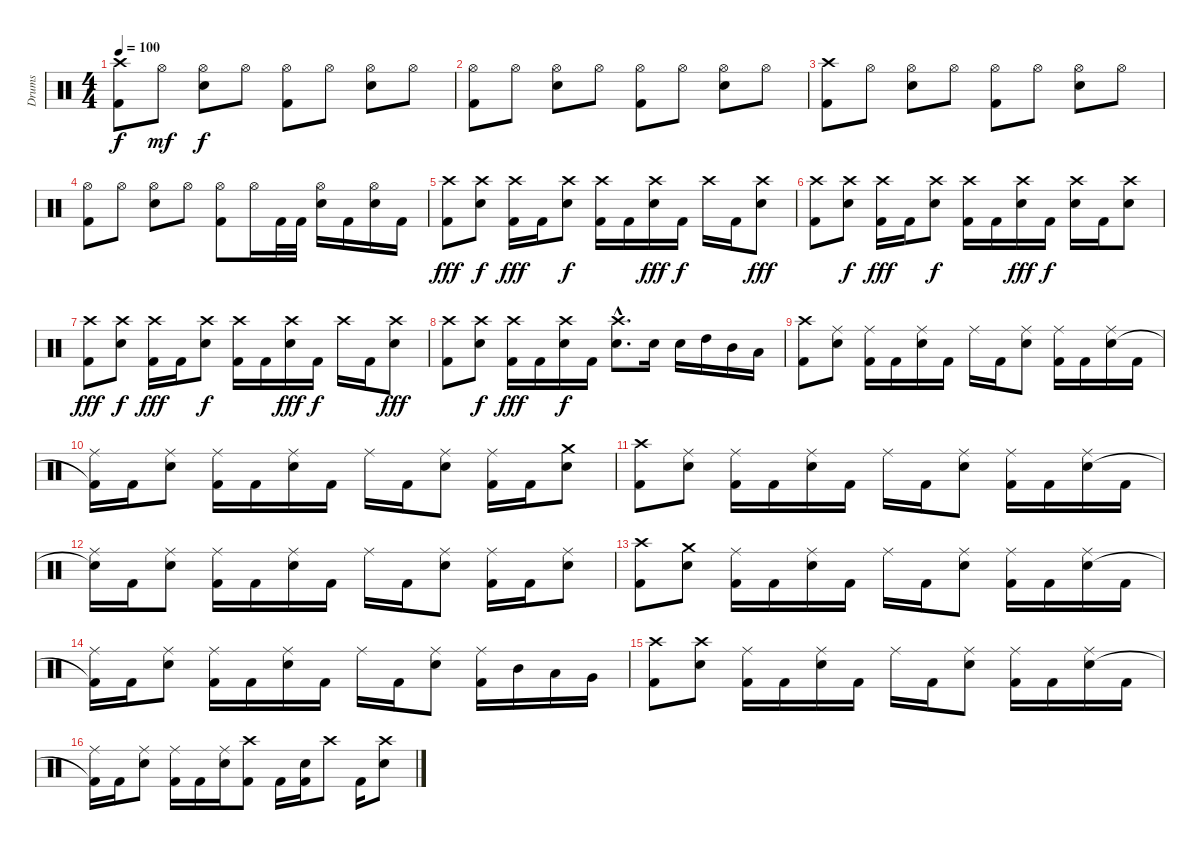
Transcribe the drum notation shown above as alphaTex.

\track ("Drums" "Drums") {instrument percussion}
\staff {score}
\articulation defaults
\ts (4 4)
\tempo 100
\clef neutral
\ks c
("Crash high (hit)" "Kick (hit) 2").8{dy f} "Hi-Hat (open)".8{dy mf} ("Hi-Hat (open)" "Snare (hit) 2").8{dy f} "Hi-Hat (open)".8 ("Hi-Hat (open)" "Kick (hit) 2").8 "Hi-Hat (open)".8 ("Hi-Hat (open)" "Snare (hit) 2").8 "Hi-Hat (open)".8 |
("Hi-Hat (open)" "Kick (hit) 2").8 "Hi-Hat (open)".8 ("Hi-Hat (open)" "Snare (hit) 2").8 "Hi-Hat (open)".8 ("Hi-Hat (open)" "Kick (hit) 2").8 "Hi-Hat (open)".8 ("Hi-Hat (open)" "Snare (hit) 2").8 "Hi-Hat (open)".8 |
("Crash high (hit)" "Kick (hit) 2").8 "Hi-Hat (open)".8 ("Hi-Hat (open)" "Snare (hit) 2").8 "Hi-Hat (open)".8 ("Hi-Hat (open)" "Kick (hit) 2").8 "Hi-Hat (open)".8 ("Hi-Hat (open)" "Snare (hit) 2").8 "Hi-Hat (open)".8 |
("Hi-Hat (open)" "Kick (hit) 2").8 "Hi-Hat (open)".8 ("Hi-Hat (open)" "Snare (hit) 2").8 "Hi-Hat (open)".8 ("Hi-Hat (open)" "Kick (hit) 2").8 "Hi-Hat (open)".16 "Kick (hit) 2".32 "Kick (hit) 2".32 ("Hi-Hat (open)" "Electric Snare (hit)").16 "Kick (hit) 2".16 ("Hi-Hat (open)" "Electric Snare (hit)").16 "Kick (hit) 2".16 |
("Crash high (hit)" "Kick (hit) 2").8{dy fff} ("Crash high (hit)" "Snare (hit) 2").8{dy f} ("Crash high (hit)" "Kick (hit) 2").16{dy fff} "Kick (hit) 2".16 ("Crash high (hit)" "Snare (hit) 2").8{dy f} ("Crash high (hit)" "Kick (hit) 2").16 "Kick (hit) 2".16 ("Crash high (hit)" "Snare (hit) 2").16{dy fff} "Kick (hit) 2".16{dy f} "Crash high (hit)".16 "Kick (hit) 2".16 ("Crash high (hit)" "Snare (hit) 2").8{dy fff} |
("Crash high (hit)" "Kick (hit) 2").8 ("Crash high (hit)" "Snare (hit) 2").8{dy f} ("Crash high (hit)" "Kick (hit) 2").16{dy fff} "Kick (hit) 2".16 ("Crash high (hit)" "Snare (hit) 2").8{dy f} ("Crash high (hit)" "Kick (hit) 2").16 "Kick (hit) 2".16 ("Crash high (hit)" "Snare (hit) 2").16{dy fff} "Kick (hit) 2".16{dy f} ("Crash high (hit)" "Snare (hit) 2").16 "Kick (hit) 2".16 ("Crash high (hit)" "Snare (hit) 2").8 |
("Crash high (hit)" "Kick (hit) 2").8{dy fff} ("Crash high (hit)" "Snare (hit) 2").8{dy f} ("Crash high (hit)" "Kick (hit) 2").16{dy fff} "Kick (hit) 2".16 ("Crash high (hit)" "Snare (hit) 2").8{dy f} ("Crash high (hit)" "Kick (hit) 2").16 "Kick (hit) 2".16 ("Crash high (hit)" "Snare (hit) 2").16{dy fff} "Kick (hit) 2".16{dy f} "Crash high (hit)".16 "Kick (hit) 2".16 ("Crash high (hit)" "Snare (hit) 2").8{dy fff} |
("Crash high (hit)" "Kick (hit) 2").8 ("Crash high (hit)" "Snare (hit) 2").8{dy f} ("Crash high (hit)" "Kick (hit) 2").16{dy fff} "Kick (hit) 2".16 ("Crash high (hit)" "Snare (hit) 2").16{dy f} "Kick (hit) 2".16 ("Crash high (hit)"{hac} "Snare (hit) 2"{hac}).8{d} "Snare (hit) 2".16 "Snare (hit) 2".16 "High Tom (hit)".16 "Mid Tom (hit)".16 "Low Tom (hit)".16 |
("Crash high (hit)" "Kick (hit) 2").8 ("Ride (middle)" "Snare (hit) 2").8 ("Ride (middle)" "Kick (hit) 2").16 "Kick (hit) 2".16 ("Ride (middle)" "Snare (hit) 2").16 "Kick (hit) 2".16 "Ride (middle)".16 "Kick (hit) 2".16 ("Ride (middle)" "Snare (hit) 2").8 ("Ride (middle)" "Kick (hit) 2").16 "Kick (hit) 2".16 ("Ride (middle)" "Snare (hit) 2").16 "Kick (hit) 2".16 |
("Ride (middle)" "Kick (hit) 2"{t}).16 "Kick (hit) 2".16 ("Ride (middle)" "Snare (hit) 2").8 ("Ride (middle)" "Kick (hit) 2").16 "Kick (hit) 2".16 ("Ride (middle)" "Snare (hit) 2").16 "Kick (hit) 2".16 "Ride (middle)".16 "Kick (hit) 2".16 ("Ride (middle)" "Snare (hit) 2").8 ("Ride (middle)" "Kick (hit) 2").16 "Kick (hit) 2".16 ("Crash medium (hit)" "Snare (hit) 2").8 |
("Crash high (hit)" "Kick (hit) 2").8 ("Ride (middle)" "Snare (hit) 2").8 ("Ride (middle)" "Kick (hit) 2").16 "Kick (hit) 2".16 ("Ride (middle)" "Snare (hit) 2").16 "Kick (hit) 2".16 "Ride (middle)".16 "Kick (hit) 2".16 ("Ride (middle)" "Snare (hit) 2").8 ("Ride (middle)" "Kick (hit) 2").16 "Kick (hit) 2".16 ("Ride (middle)" "Snare (hit) 2").16 "Kick (hit) 2".16 |
("Ride (middle)" "Snare (hit)"{t}).16 "Kick (hit) 2".16 ("Ride (middle)" "Snare (hit) 2").8 ("Ride (middle)" "Kick (hit) 2").16 "Kick (hit) 2".16 ("Ride (middle)" "Snare (hit) 2").16 "Kick (hit) 2".16 "Ride (middle)".16 "Kick (hit) 2".16 ("Ride (middle)" "Snare (hit) 2").8 ("Ride (middle)" "Kick (hit) 2").16 "Kick (hit) 2".16 ("Ride (middle)" "Snare (hit) 2").8 |
("Crash high (hit)" "Kick (hit) 2").8 ("Crash medium (hit)" "Snare (hit) 2").8 ("Ride (middle)" "Kick (hit) 2").16 "Kick (hit) 2".16 ("Ride (middle)" "Snare (hit) 2").16 "Kick (hit) 2".16 "Ride (middle)".16 "Kick (hit) 2".16 ("Ride (middle)" "Snare (hit) 2").8 ("Ride (middle)" "Kick (hit) 2").16 "Kick (hit) 2".16 ("Ride (middle)" "Snare (hit) 2").16 "Kick (hit) 2".16 |
("Ride (middle)" "Kick (hit) 2"{t}).16 "Kick (hit) 2".16 ("Ride (middle)" "Snare (hit) 2").8 ("Ride (middle)" "Kick (hit) 2").16 "Kick (hit) 2".16 ("Ride (middle)" "Snare (hit) 2").16 "Kick (hit) 2".16 "Ride (middle)".16 "Kick (hit) 2".16 ("Ride (middle)" "Snare (hit) 2").8 ("Ride (middle)" "Kick (hit) 2").16 "Mid Tom (hit)".16 "Low Tom (hit)".16 "Very Low Tom (hit)".16 |
("Crash high (hit)" "Kick (hit) 2").8 ("Crash high (hit)" "Snare (hit) 2").8 ("Ride (middle)" "Kick (hit) 2").16 "Kick (hit) 2".16 ("Ride (middle)" "Snare (hit) 2").16 "Kick (hit) 2".16 "Ride (middle)".16 "Kick (hit) 2".16 ("Ride (middle)" "Snare (hit) 2").8 ("Ride (middle)" "Kick (hit) 2").16 "Kick (hit) 2".16 ("Ride (middle)" "Snare (hit) 2").16 "Kick (hit) 2".16 |
("Ride (middle)" "Kick (hit) 2"{t}).16 "Kick (hit) 2".16 ("Ride (middle)" "Snare (hit) 2").8 ("Ride (middle)" "Kick (hit) 2").16 "Kick (hit) 2".16 ("Ride (middle)" "Snare (hit) 2").16 ("Crash high (hit)" "Kick (hit) 2").8 "Kick (hit) 2".16 ("Snare (hit) 2" "Kick (hit) 2").16 "Crash high (hit)".8 "Kick (hit) 2".16 ("Crash high (hit)" "Snare (hit) 2").8
